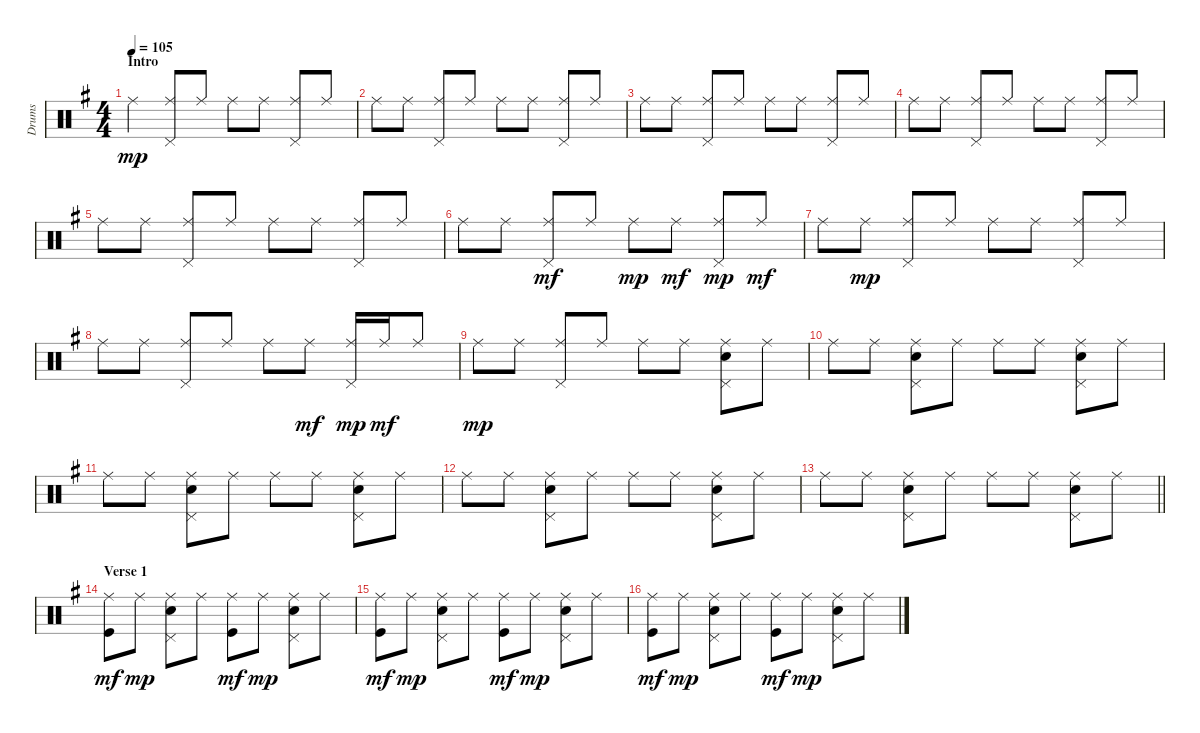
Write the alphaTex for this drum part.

\track ("Drums" "Drums") {instrument percussion}
\staff {score}
\articulation defaults
\ts (4 4)
\section ("" "Intro")
\tempo 105
\clef neutral
\ks eminor "Ride (middle)".4{dy mp}
("Ride (middle)" "Pedal Hi-Hat (hit)").8 "Ride (middle)".8 "Ride (middle)".8 "Ride (middle)".8 ("Ride (middle)" "Pedal Hi-Hat (hit)").8 "Ride (middle)".8 |
"Ride (middle)".8 "Ride (middle)".8 ("Ride (middle)" "Pedal Hi-Hat (hit)").8 "Ride (middle)".8 "Ride (middle)".8 "Ride (middle)".8 ("Ride (middle)" "Pedal Hi-Hat (hit)").8 "Ride (middle)".8 |
"Ride (middle)".8 "Ride (middle)".8 ("Ride (middle)" "Pedal Hi-Hat (hit)").8 "Ride (middle)".8 "Ride (middle)".8 "Ride (middle)".8 ("Ride (middle)" "Pedal Hi-Hat (hit)").8 "Ride (middle)".8 |
"Ride (middle)".8 "Ride (middle)".8 ("Ride (middle)" "Pedal Hi-Hat (hit)").8 "Ride (middle)".8 "Ride (middle)".8 "Ride (middle)".8 ("Ride (middle)" "Pedal Hi-Hat (hit)").8 "Ride (middle)".8 |
"Ride (middle)".8 "Ride (middle)".8 ("Ride (middle)" "Pedal Hi-Hat (hit)").8 "Ride (middle)".8 "Ride (middle)".8 "Ride (middle)".8 ("Ride (middle)" "Pedal Hi-Hat (hit)").8 "Ride (middle)".8 |
"Ride (middle)".8 "Ride (middle)".8 ("Ride (middle)" "Pedal Hi-Hat (hit)").8{dy mf} "Ride (middle)".8 "Ride (middle)".8{dy mp} "Ride (middle)".8{dy mf} ("Ride (middle)" "Pedal Hi-Hat (hit)").8{dy mp} "Ride (middle)".8{dy mf} |
"Ride (middle)".8 "Ride (middle)".8{dy mp} ("Ride (middle)" "Pedal Hi-Hat (hit)").8 "Ride (middle)".8 "Ride (middle)".8 "Ride (middle)".8 ("Ride (middle)" "Pedal Hi-Hat (hit)").8 "Ride (middle)".8 |
"Ride (middle)".8 "Ride (middle)".8 ("Ride (middle)" "Pedal Hi-Hat (hit)").8 "Ride (middle)".8 "Ride (middle)".8 "Ride (middle)".8{dy mf} ("Ride (middle)" "Pedal Hi-Hat (hit)").16{dy mp} "Ride (middle)".16{dy mf} "Ride (middle)".8 |
"Ride (middle)".8{dy mp} "Ride (middle)".8 ("Ride (middle)" "Pedal Hi-Hat (hit)").8 "Ride (middle)".8 "Ride (middle)".8 "Ride (middle)".8 ("Ride (middle)" "Pedal Hi-Hat (hit)" "Snare (hit) 2").8 "Ride (middle)".8 |
"Ride (middle)".8 "Ride (middle)".8 ("Ride (middle)" "Pedal Hi-Hat (hit)" "Snare (hit) 2").8 "Ride (middle)".8 "Ride (middle)".8 "Ride (middle)".8 ("Ride (middle)" "Pedal Hi-Hat (hit)" "Snare (hit) 2").8 "Ride (middle)".8 |
"Ride (middle)".8 "Ride (middle)".8 ("Ride (middle)" "Pedal Hi-Hat (hit)" "Snare (hit) 2").8 "Ride (middle)".8 "Ride (middle)".8 "Ride (middle)".8 ("Ride (middle)" "Pedal Hi-Hat (hit)" "Snare (hit) 2").8 "Ride (middle)".8 |
"Ride (middle)".8 "Ride (middle)".8 ("Ride (middle)" "Pedal Hi-Hat (hit)" "Snare (hit) 2").8 "Ride (middle)".8 "Ride (middle)".8 "Ride (middle)".8 ("Ride (middle)" "Pedal Hi-Hat (hit)" "Snare (hit) 2").8 "Ride (middle)".8 |
\barLineRight lightlight "Ride (middle)".8 "Ride (middle)".8
("Ride (middle)" "Pedal Hi-Hat (hit)" "Snare (hit) 2").8 "Ride (middle)".8 "Ride (middle)".8 "Ride (middle)".8 ("Ride (middle)" "Pedal Hi-Hat (hit)" "Snare (hit) 2").8 "Ride (middle)".8 |
\section ("" "Verse 1")
("Ride (middle)" "Kick (hit)").8{dy mf} "Ride (middle)".8{dy mp} ("Ride (middle)" "Pedal Hi-Hat (hit)" "Snare (hit) 2").8 "Ride (middle)".8 ("Ride (middle)" "Kick (hit)").8{dy mf} "Ride (middle)".8{dy mp} ("Ride (middle)" "Pedal Hi-Hat (hit)" "Snare (hit) 2").8 "Ride (middle)".8 |
("Ride (middle)" "Kick (hit)").8{dy mf} "Ride (middle)".8{dy mp} ("Ride (middle)" "Pedal Hi-Hat (hit)" "Snare (hit) 2").8 "Ride (middle)".8 ("Ride (middle)" "Kick (hit)").8{dy mf} "Ride (middle)".8{dy mp} ("Ride (middle)" "Pedal Hi-Hat (hit)" "Snare (hit) 2").8 "Ride (middle)".8 |
("Ride (middle)" "Kick (hit)").8{dy mf} "Ride (middle)".8{dy mp} ("Ride (middle)" "Pedal Hi-Hat (hit)" "Snare (hit) 2").8 "Ride (middle)".8 ("Ride (middle)" "Kick (hit)").8{dy mf} "Ride (middle)".8{dy mp} ("Ride (middle)" "Pedal Hi-Hat (hit)" "Snare (hit) 2").8 "Ride (middle)".8
